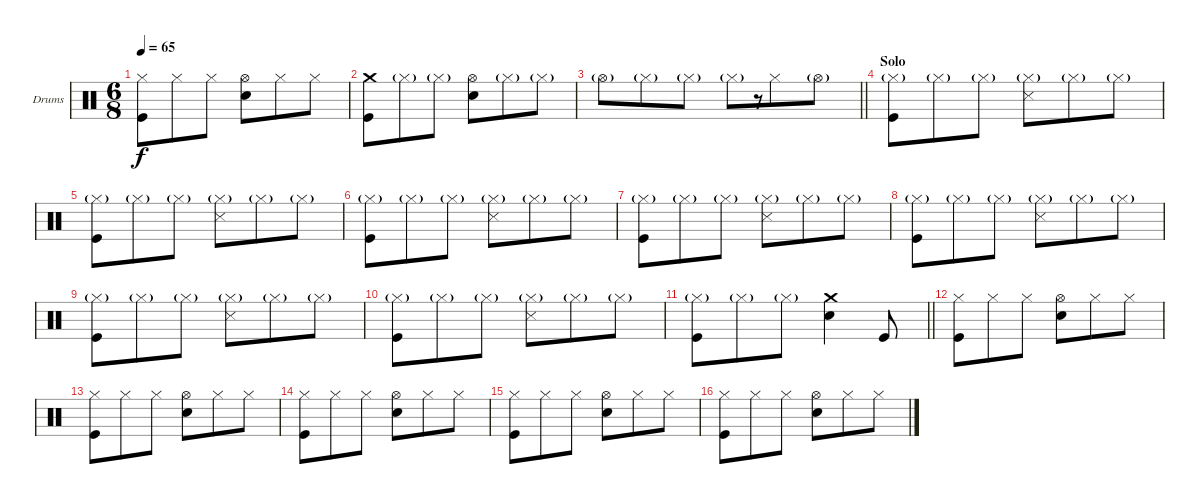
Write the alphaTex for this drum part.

\bracketExtendMode groupsimilarinstruments
\firstSystemTrackNameOrientation horizontal
\otherSystemsTrackNameOrientation horizontal
\track ("Drumkit" "Drums") {instrument percussion}
\staff {score}
\articulation defaults
\ts (6 8)
\tempo 65
\clef neutral
\ks c
("Hi-Hat (closed)" "Kick (hit)").8{dy f} "Hi-Hat (closed)".8 "Hi-Hat (closed)".8 ("Hi-Hat (open)" "Snare (hit) 2").8 "Hi-Hat (closed)".8 "Hi-Hat (closed)".8 |
("Crash medium (hit)" "Kick (hit)").8 "Hi-Hat (closed)"{g}.8 "Hi-Hat (closed)"{g}.8 ("Hi-Hat (open)" "Snare (hit) 2").8 "Hi-Hat (closed)"{g}.8 "Hi-Hat (closed)"{g}.8 |
\barLineRight lightlight "Hi-Hat (open)"{g}.8 "Hi-Hat (closed)"{g}.8 "Hi-Hat (closed)"{g}.8 "Hi-Hat (closed)"{g}.8
r.8{gr} "Hi-Hat (closed)".8 "Hi-Hat (open)"{g}.8 |
\section ("" "Solo")
("Hi-Hat (closed)"{g} "Kick (hit)").8 "Hi-Hat (closed)"{g}.8 "Hi-Hat (closed)"{g}.8 ("Hi-Hat (closed)"{g} "Snare (side stick) 3").8 "Hi-Hat (closed)"{g}.8 "Hi-Hat (closed)"{g}.8 |
("Hi-Hat (closed)"{g} "Kick (hit)").8 "Hi-Hat (closed)"{g}.8 "Hi-Hat (closed)"{g}.8 ("Hi-Hat (closed)"{g} "Snare (side stick) 3").8 "Hi-Hat (closed)"{g}.8 "Hi-Hat (closed)"{g}.8 |
("Hi-Hat (closed)"{g} "Kick (hit)").8 "Hi-Hat (closed)"{g}.8 "Hi-Hat (closed)"{g}.8 ("Hi-Hat (closed)"{g} "Snare (side stick) 3").8 "Hi-Hat (closed)"{g}.8 "Hi-Hat (closed)"{g}.8 |
("Hi-Hat (closed)"{g} "Kick (hit)").8 "Hi-Hat (closed)"{g}.8 "Hi-Hat (closed)"{g}.8 ("Hi-Hat (closed)"{g} "Snare (side stick) 3").8 "Hi-Hat (closed)"{g}.8 "Hi-Hat (closed)"{g}.8 |
("Hi-Hat (closed)"{g} "Kick (hit)").8 "Hi-Hat (closed)"{g}.8 "Hi-Hat (closed)"{g}.8 ("Hi-Hat (closed)"{g} "Snare (side stick) 3").8 "Hi-Hat (closed)"{g}.8 "Hi-Hat (closed)"{g}.8 |
("Hi-Hat (closed)"{g} "Kick (hit)").8 "Hi-Hat (closed)"{g}.8 "Hi-Hat (closed)"{g}.8 ("Hi-Hat (closed)"{g} "Snare (side stick) 3").8 "Hi-Hat (closed)"{g}.8 "Hi-Hat (closed)"{g}.8 |
("Hi-Hat (closed)"{g} "Kick (hit)").8 "Hi-Hat (closed)"{g}.8 "Hi-Hat (closed)"{g}.8 ("Hi-Hat (closed)"{g} "Snare (side stick) 3").8 "Hi-Hat (closed)"{g}.8 "Hi-Hat (closed)"{g}.8 |
\barLineRight lightlight
("Hi-Hat (closed)"{g} "Kick (hit)").8 "Hi-Hat (closed)"{g}.8 "Hi-Hat (closed)"{g}.8 ("Crash medium (hit)" "Snare (hit) 2").4 "Kick (hit)".8 |
\section ("" "")
("Hi-Hat (closed)" "Kick (hit)").8 "Hi-Hat (closed)".8 "Hi-Hat (closed)".8 ("Hi-Hat (open)" "Snare (hit) 2").8 "Hi-Hat (closed)".8 "Hi-Hat (closed)".8 |
("Hi-Hat (closed)" "Kick (hit)").8 "Hi-Hat (closed)".8 "Hi-Hat (closed)".8 ("Hi-Hat (open)" "Snare (hit) 2").8 "Hi-Hat (closed)".8 "Hi-Hat (closed)".8 |
("Hi-Hat (closed)" "Kick (hit)").8 "Hi-Hat (closed)".8 "Hi-Hat (closed)".8 ("Hi-Hat (open)" "Snare (hit) 2").8 "Hi-Hat (closed)".8 "Hi-Hat (closed)".8 |
("Hi-Hat (closed)" "Kick (hit)").8 "Hi-Hat (closed)".8 "Hi-Hat (closed)".8 ("Hi-Hat (open)" "Snare (hit) 2").8 "Hi-Hat (closed)".8 "Hi-Hat (closed)".8 |
("Hi-Hat (closed)" "Kick (hit)").8 "Hi-Hat (closed)".8 "Hi-Hat (closed)".8 ("Hi-Hat (open)" "Snare (hit) 2").8 "Hi-Hat (closed)".8 "Hi-Hat (closed)".8
